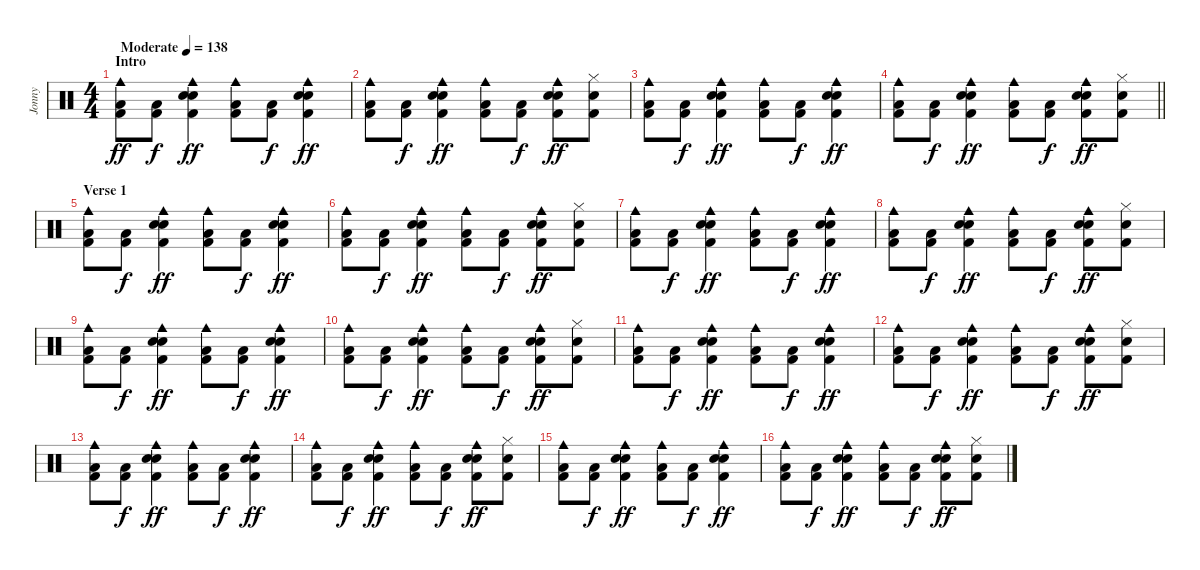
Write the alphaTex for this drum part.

\track ("Jonny" "Jonny") {instrument percussion}
\staff {score}
\articulation defaults
\ts (4 4)
\section ("" "Intro")
\tempo (138 "Moderate")
\clef neutral
\ks c
("Cowbell medium (hit)" "Low Floor Tom (hit)" "Kick (hit) 2").8{dy ff} ("Low Floor Tom (hit)" "Kick (hit) 2").8{dy f} ("Cowbell medium (hit)" "Electric Snare (hit)" "Electric Snare (hit)" "Kick (hit) 2").4{dy ff} ("Cowbell medium (hit)" "Low Floor Tom (hit)" "Kick (hit) 2").8 ("Low Floor Tom (hit)" "Kick (hit) 2").8{dy f} ("Cowbell medium (hit)" "Electric Snare (hit)" "Electric Snare (hit)" "Kick (hit) 2").4{dy ff} |
("Cowbell medium (hit)" "Low Floor Tom (hit)" "Kick (hit) 2").8 ("Low Floor Tom (hit)" "Kick (hit) 2").8{dy f} ("Cowbell medium (hit)" "Electric Snare (hit)" "Electric Snare (hit)" "Kick (hit) 2").4{dy ff} ("Cowbell medium (hit)" "Low Floor Tom (hit)" "Kick (hit) 2").8 ("Low Floor Tom (hit)" "Kick (hit) 2").8{dy f} ("Cowbell medium (hit)" "Electric Snare (hit)" "Electric Snare (hit)" "Kick (hit) 2").8{dy ff} ("Hi-Hat (closed)" "Electric Snare (hit)" "Kick (hit) 2").8 |
("Cowbell medium (hit)" "Low Floor Tom (hit)" "Kick (hit) 2").8 ("Low Floor Tom (hit)" "Kick (hit) 2").8{dy f} ("Cowbell medium (hit)" "Electric Snare (hit)" "Electric Snare (hit)" "Kick (hit) 2").4{dy ff} ("Cowbell medium (hit)" "Low Floor Tom (hit)" "Kick (hit) 2").8 ("Low Floor Tom (hit)" "Kick (hit) 2").8{dy f} ("Cowbell medium (hit)" "Electric Snare (hit)" "Electric Snare (hit)" "Kick (hit) 2").4{dy ff} |
\barLineRight lightlight
("Cowbell medium (hit)" "Low Floor Tom (hit)" "Kick (hit) 2").8 ("Low Floor Tom (hit)" "Kick (hit) 2").8{dy f} ("Cowbell medium (hit)" "Electric Snare (hit)" "Electric Snare (hit)" "Kick (hit) 2").4{dy ff} ("Cowbell medium (hit)" "Low Floor Tom (hit)" "Kick (hit) 2").8 ("Low Floor Tom (hit)" "Kick (hit) 2").8{dy f} ("Cowbell medium (hit)" "Electric Snare (hit)" "Electric Snare (hit)" "Kick (hit) 2").8{dy ff} ("Hi-Hat (closed)" "Electric Snare (hit)" "Kick (hit) 2").8 |
\section ("" "Verse 1")
("Cowbell medium (hit)" "Low Floor Tom (hit)" "Kick (hit) 2").8 ("Low Floor Tom (hit)" "Kick (hit) 2").8{dy f} ("Cowbell medium (hit)" "Electric Snare (hit)" "Electric Snare (hit)" "Kick (hit) 2").4{dy ff} ("Cowbell medium (hit)" "Low Floor Tom (hit)" "Kick (hit) 2").8 ("Low Floor Tom (hit)" "Kick (hit) 2").8{dy f} ("Cowbell medium (hit)" "Electric Snare (hit)" "Electric Snare (hit)" "Kick (hit) 2").4{dy ff} |
("Cowbell medium (hit)" "Low Floor Tom (hit)" "Kick (hit) 2").8 ("Low Floor Tom (hit)" "Kick (hit) 2").8{dy f} ("Cowbell medium (hit)" "Electric Snare (hit)" "Electric Snare (hit)" "Kick (hit) 2").4{dy ff} ("Cowbell medium (hit)" "Low Floor Tom (hit)" "Kick (hit) 2").8 ("Low Floor Tom (hit)" "Kick (hit) 2").8{dy f} ("Cowbell medium (hit)" "Electric Snare (hit)" "Electric Snare (hit)" "Kick (hit) 2").8{dy ff} ("Hi-Hat (closed)" "Electric Snare (hit)" "Kick (hit) 2").8 |
("Cowbell medium (hit)" "Low Floor Tom (hit)" "Kick (hit) 2").8 ("Low Floor Tom (hit)" "Kick (hit) 2").8{dy f} ("Cowbell medium (hit)" "Electric Snare (hit)" "Electric Snare (hit)" "Kick (hit) 2").4{dy ff} ("Cowbell medium (hit)" "Low Floor Tom (hit)" "Kick (hit) 2").8 ("Low Floor Tom (hit)" "Kick (hit) 2").8{dy f} ("Cowbell medium (hit)" "Electric Snare (hit)" "Electric Snare (hit)" "Kick (hit) 2").4{dy ff} |
("Cowbell medium (hit)" "Low Floor Tom (hit)" "Kick (hit) 2").8 ("Low Floor Tom (hit)" "Kick (hit) 2").8{dy f} ("Cowbell medium (hit)" "Electric Snare (hit)" "Electric Snare (hit)" "Kick (hit) 2").4{dy ff} ("Cowbell medium (hit)" "Low Floor Tom (hit)" "Kick (hit) 2").8 ("Low Floor Tom (hit)" "Kick (hit) 2").8{dy f} ("Cowbell medium (hit)" "Electric Snare (hit)" "Electric Snare (hit)" "Kick (hit) 2").8{dy ff} ("Hi-Hat (closed)" "Electric Snare (hit)" "Kick (hit) 2").8 |
("Cowbell medium (hit)" "Low Floor Tom (hit)" "Kick (hit) 2").8 ("Low Floor Tom (hit)" "Kick (hit) 2").8{dy f} ("Cowbell medium (hit)" "Electric Snare (hit)" "Electric Snare (hit)" "Kick (hit) 2").4{dy ff} ("Cowbell medium (hit)" "Low Floor Tom (hit)" "Kick (hit) 2").8 ("Low Floor Tom (hit)" "Kick (hit) 2").8{dy f} ("Cowbell medium (hit)" "Electric Snare (hit)" "Electric Snare (hit)" "Kick (hit) 2").4{dy ff} |
("Cowbell medium (hit)" "Low Floor Tom (hit)" "Kick (hit) 2").8 ("Low Floor Tom (hit)" "Kick (hit) 2").8{dy f} ("Cowbell medium (hit)" "Electric Snare (hit)" "Electric Snare (hit)" "Kick (hit) 2").4{dy ff} ("Cowbell medium (hit)" "Low Floor Tom (hit)" "Kick (hit) 2").8 ("Low Floor Tom (hit)" "Kick (hit) 2").8{dy f} ("Cowbell medium (hit)" "Electric Snare (hit)" "Electric Snare (hit)" "Kick (hit) 2").8{dy ff} ("Hi-Hat (closed)" "Electric Snare (hit)" "Kick (hit) 2").8 |
("Cowbell medium (hit)" "Low Floor Tom (hit)" "Kick (hit) 2").8 ("Low Floor Tom (hit)" "Kick (hit) 2").8{dy f} ("Cowbell medium (hit)" "Electric Snare (hit)" "Electric Snare (hit)" "Kick (hit) 2").4{dy ff} ("Cowbell medium (hit)" "Low Floor Tom (hit)" "Kick (hit) 2").8 ("Low Floor Tom (hit)" "Kick (hit) 2").8{dy f} ("Cowbell medium (hit)" "Electric Snare (hit)" "Electric Snare (hit)" "Kick (hit) 2").4{dy ff} |
("Cowbell medium (hit)" "Low Floor Tom (hit)" "Kick (hit) 2").8 ("Low Floor Tom (hit)" "Kick (hit) 2").8{dy f} ("Cowbell medium (hit)" "Electric Snare (hit)" "Electric Snare (hit)" "Kick (hit) 2").4{dy ff} ("Cowbell medium (hit)" "Low Floor Tom (hit)" "Kick (hit) 2").8 ("Low Floor Tom (hit)" "Kick (hit) 2").8{dy f} ("Cowbell medium (hit)" "Electric Snare (hit)" "Electric Snare (hit)" "Kick (hit) 2").8{dy ff} ("Hi-Hat (closed)" "Electric Snare (hit)" "Kick (hit) 2").8 |
("Cowbell medium (hit)" "Low Floor Tom (hit)" "Kick (hit) 2").8 ("Low Floor Tom (hit)" "Kick (hit) 2").8{dy f} ("Cowbell medium (hit)" "Electric Snare (hit)" "Electric Snare (hit)" "Kick (hit) 2").4{dy ff} ("Cowbell medium (hit)" "Low Floor Tom (hit)" "Kick (hit) 2").8 ("Low Floor Tom (hit)" "Kick (hit) 2").8{dy f} ("Cowbell medium (hit)" "Electric Snare (hit)" "Electric Snare (hit)" "Kick (hit) 2").4{dy ff} |
("Cowbell medium (hit)" "Low Floor Tom (hit)" "Kick (hit) 2").8 ("Low Floor Tom (hit)" "Kick (hit) 2").8{dy f} ("Cowbell medium (hit)" "Electric Snare (hit)" "Electric Snare (hit)" "Kick (hit) 2").4{dy ff} ("Cowbell medium (hit)" "Low Floor Tom (hit)" "Kick (hit) 2").8 ("Low Floor Tom (hit)" "Kick (hit) 2").8{dy f} ("Cowbell medium (hit)" "Electric Snare (hit)" "Electric Snare (hit)" "Kick (hit) 2").8{dy ff} ("Hi-Hat (closed)" "Electric Snare (hit)" "Kick (hit) 2").8 |
("Cowbell medium (hit)" "Low Floor Tom (hit)" "Kick (hit) 2").8 ("Low Floor Tom (hit)" "Kick (hit) 2").8{dy f} ("Cowbell medium (hit)" "Electric Snare (hit)" "Electric Snare (hit)" "Kick (hit) 2").4{dy ff} ("Cowbell medium (hit)" "Low Floor Tom (hit)" "Kick (hit) 2").8 ("Low Floor Tom (hit)" "Kick (hit) 2").8{dy f} ("Cowbell medium (hit)" "Electric Snare (hit)" "Electric Snare (hit)" "Kick (hit) 2").4{dy ff} |
("Cowbell medium (hit)" "Low Floor Tom (hit)" "Kick (hit) 2").8 ("Low Floor Tom (hit)" "Kick (hit) 2").8{dy f} ("Cowbell medium (hit)" "Electric Snare (hit)" "Electric Snare (hit)" "Kick (hit) 2").4{dy ff} ("Cowbell medium (hit)" "Low Floor Tom (hit)" "Kick (hit) 2").8 ("Low Floor Tom (hit)" "Kick (hit) 2").8{dy f} ("Cowbell medium (hit)" "Electric Snare (hit)" "Electric Snare (hit)" "Kick (hit) 2").8{dy ff} ("Hi-Hat (closed)" "Electric Snare (hit)" "Kick (hit) 2").8
